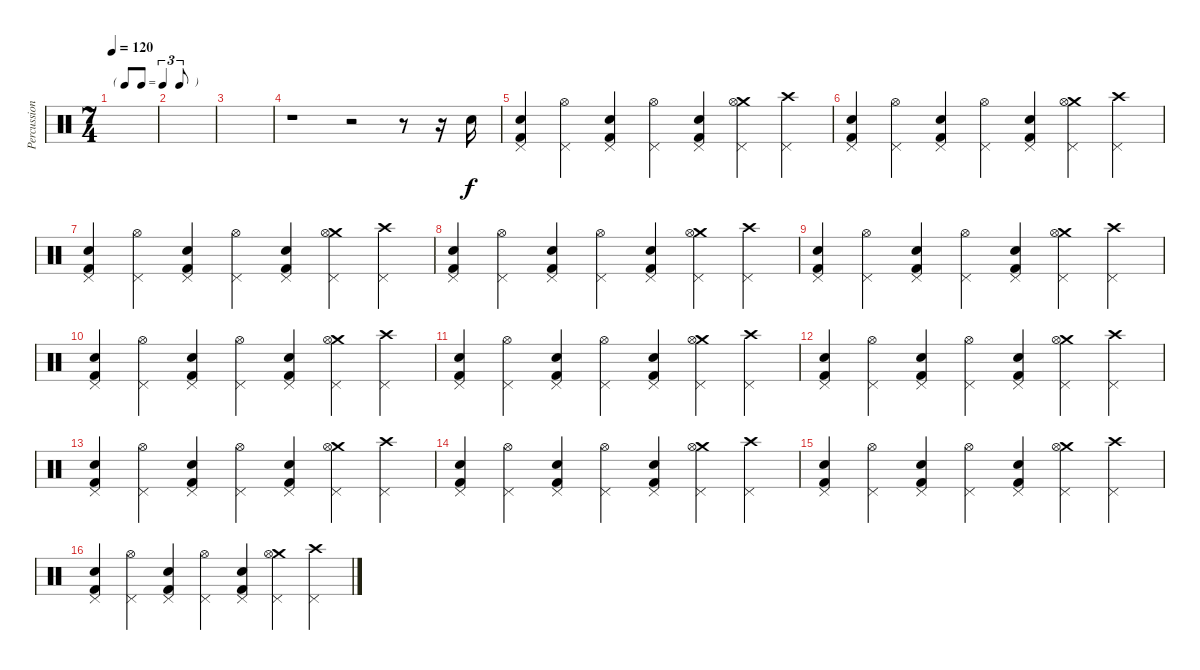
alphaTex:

\track ("Percussions" "Percussion") {instrument percussion}
\staff {score}
\articulation defaults
\ts (7 4)
\tf triplet8th
\tempo 120
\clef neutral
\ks c
|
|
|
r.1 r.2 r.8 r.16 "Electric Snare (hit)".16 |
("Kick (hit) 2" "Snare (hit) 2" "Pedal Hi-Hat (hit)").4 ("Hi-Hat (open)" "Pedal Hi-Hat (hit)").4 ("Kick (hit) 2" "Snare (hit) 2" "Pedal Hi-Hat (hit)").4 ("Hi-Hat (open)" "Pedal Hi-Hat (hit)").4 ("Kick (hit) 2" "Snare (hit) 2" "Pedal Hi-Hat (hit)").4 ("Crash medium (hit)" "Hi-Hat (open)" "Pedal Hi-Hat (hit)").4 ("Crash high (hit)" "Pedal Hi-Hat (hit)").4 |
("Kick (hit) 2" "Snare (hit) 2" "Pedal Hi-Hat (hit)").4 ("Hi-Hat (open)" "Pedal Hi-Hat (hit)").4 ("Kick (hit) 2" "Snare (hit) 2" "Pedal Hi-Hat (hit)").4 ("Hi-Hat (open)" "Pedal Hi-Hat (hit)").4 ("Kick (hit) 2" "Snare (hit) 2" "Pedal Hi-Hat (hit)").4 ("Crash medium (hit)" "Hi-Hat (open)" "Pedal Hi-Hat (hit)").4 ("Crash high (hit)" "Pedal Hi-Hat (hit)").4 |
("Kick (hit) 2" "Snare (hit) 2" "Pedal Hi-Hat (hit)").4 ("Hi-Hat (open)" "Pedal Hi-Hat (hit)").4 ("Kick (hit) 2" "Snare (hit) 2" "Pedal Hi-Hat (hit)").4 ("Hi-Hat (open)" "Pedal Hi-Hat (hit)").4 ("Kick (hit) 2" "Snare (hit) 2" "Pedal Hi-Hat (hit)").4 ("Crash medium (hit)" "Hi-Hat (open)" "Pedal Hi-Hat (hit)").4 ("Crash high (hit)" "Pedal Hi-Hat (hit)").4 |
("Kick (hit) 2" "Snare (hit) 2" "Pedal Hi-Hat (hit)").4 ("Hi-Hat (open)" "Pedal Hi-Hat (hit)").4 ("Kick (hit) 2" "Snare (hit) 2" "Pedal Hi-Hat (hit)").4 ("Hi-Hat (open)" "Pedal Hi-Hat (hit)").4 ("Kick (hit) 2" "Snare (hit) 2" "Pedal Hi-Hat (hit)").4 ("Crash medium (hit)" "Hi-Hat (open)" "Pedal Hi-Hat (hit)").4 ("Crash high (hit)" "Pedal Hi-Hat (hit)").4 |
("Kick (hit) 2" "Snare (hit) 2" "Pedal Hi-Hat (hit)").4 ("Hi-Hat (open)" "Pedal Hi-Hat (hit)").4 ("Kick (hit) 2" "Snare (hit) 2" "Pedal Hi-Hat (hit)").4 ("Hi-Hat (open)" "Pedal Hi-Hat (hit)").4 ("Kick (hit) 2" "Snare (hit) 2" "Pedal Hi-Hat (hit)").4 ("Crash medium (hit)" "Hi-Hat (open)" "Pedal Hi-Hat (hit)").4 ("Crash high (hit)" "Pedal Hi-Hat (hit)").4 |
("Kick (hit) 2" "Snare (hit) 2" "Pedal Hi-Hat (hit)").4 ("Hi-Hat (open)" "Pedal Hi-Hat (hit)").4 ("Kick (hit) 2" "Snare (hit) 2" "Pedal Hi-Hat (hit)").4 ("Hi-Hat (open)" "Pedal Hi-Hat (hit)").4 ("Kick (hit) 2" "Snare (hit) 2" "Pedal Hi-Hat (hit)").4 ("Crash medium (hit)" "Hi-Hat (open)" "Pedal Hi-Hat (hit)").4 ("Crash high (hit)" "Pedal Hi-Hat (hit)").4 |
("Kick (hit) 2" "Snare (hit) 2" "Pedal Hi-Hat (hit)").4 ("Hi-Hat (open)" "Pedal Hi-Hat (hit)").4 ("Kick (hit) 2" "Snare (hit) 2" "Pedal Hi-Hat (hit)").4 ("Hi-Hat (open)" "Pedal Hi-Hat (hit)").4 ("Kick (hit) 2" "Snare (hit) 2" "Pedal Hi-Hat (hit)").4 ("Crash medium (hit)" "Hi-Hat (open)" "Pedal Hi-Hat (hit)").4 ("Crash high (hit)" "Pedal Hi-Hat (hit)").4 |
("Kick (hit) 2" "Snare (hit) 2" "Pedal Hi-Hat (hit)").4 ("Hi-Hat (open)" "Pedal Hi-Hat (hit)").4 ("Kick (hit) 2" "Snare (hit) 2" "Pedal Hi-Hat (hit)").4 ("Hi-Hat (open)" "Pedal Hi-Hat (hit)").4 ("Kick (hit) 2" "Snare (hit) 2" "Pedal Hi-Hat (hit)").4 ("Crash medium (hit)" "Hi-Hat (open)" "Pedal Hi-Hat (hit)").4 ("Crash high (hit)" "Pedal Hi-Hat (hit)").4 |
("Kick (hit) 2" "Snare (hit) 2" "Pedal Hi-Hat (hit)").4 ("Hi-Hat (open)" "Pedal Hi-Hat (hit)").4 ("Kick (hit) 2" "Snare (hit) 2" "Pedal Hi-Hat (hit)").4 ("Hi-Hat (open)" "Pedal Hi-Hat (hit)").4 ("Kick (hit) 2" "Snare (hit) 2" "Pedal Hi-Hat (hit)").4 ("Crash medium (hit)" "Hi-Hat (open)" "Pedal Hi-Hat (hit)").4 ("Crash high (hit)" "Pedal Hi-Hat (hit)").4 |
("Kick (hit) 2" "Snare (hit) 2" "Pedal Hi-Hat (hit)").4 ("Hi-Hat (open)" "Pedal Hi-Hat (hit)").4 ("Kick (hit) 2" "Snare (hit) 2" "Pedal Hi-Hat (hit)").4 ("Hi-Hat (open)" "Pedal Hi-Hat (hit)").4 ("Kick (hit) 2" "Snare (hit) 2" "Pedal Hi-Hat (hit)").4 ("Crash medium (hit)" "Hi-Hat (open)" "Pedal Hi-Hat (hit)").4 ("Crash high (hit)" "Pedal Hi-Hat (hit)").4 |
("Kick (hit) 2" "Snare (hit) 2" "Pedal Hi-Hat (hit)").4 ("Hi-Hat (open)" "Pedal Hi-Hat (hit)").4 ("Kick (hit) 2" "Snare (hit) 2" "Pedal Hi-Hat (hit)").4 ("Hi-Hat (open)" "Pedal Hi-Hat (hit)").4 ("Kick (hit) 2" "Snare (hit) 2" "Pedal Hi-Hat (hit)").4 ("Crash medium (hit)" "Hi-Hat (open)" "Pedal Hi-Hat (hit)").4 ("Crash high (hit)" "Pedal Hi-Hat (hit)").4 |
("Kick (hit) 2" "Snare (hit) 2" "Pedal Hi-Hat (hit)").4 ("Hi-Hat (open)" "Pedal Hi-Hat (hit)").4 ("Kick (hit) 2" "Snare (hit) 2" "Pedal Hi-Hat (hit)").4 ("Hi-Hat (open)" "Pedal Hi-Hat (hit)").4 ("Kick (hit) 2" "Snare (hit) 2" "Pedal Hi-Hat (hit)").4 ("Crash medium (hit)" "Hi-Hat (open)" "Pedal Hi-Hat (hit)").4 ("Crash high (hit)" "Pedal Hi-Hat (hit)").4
